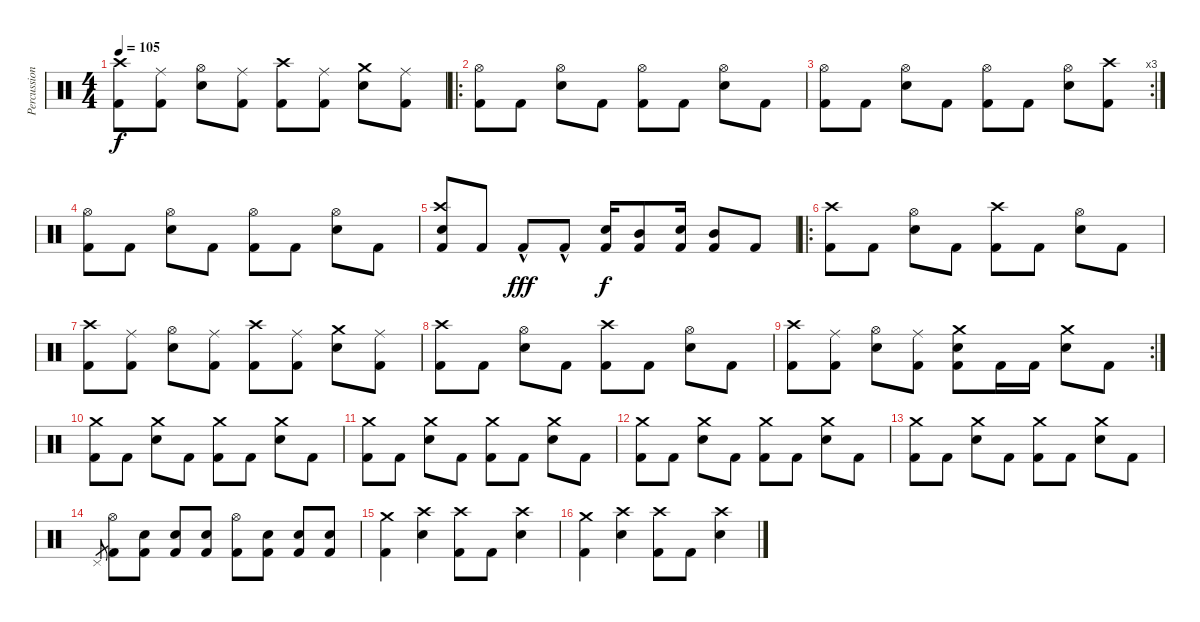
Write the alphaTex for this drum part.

\track ("Percussion" "Percussion") {instrument percussion}
\staff {score}
\articulation defaults
\ts (4 4)
\tempo 105
\clef neutral
\ks c
("Kick (hit) 2" "Crash high (hit)").8{dy f} ("Kick (hit) 2" "Ride (middle)").8 ("Electric Snare (hit)" "Hi-Hat (open)").8 ("Kick (hit) 2" "Ride (middle)").8 ("Kick (hit) 2" "Crash high (hit)").8 ("Kick (hit) 2" "Ride (middle)").8 ("Electric Snare (hit)" "Crash medium (hit)").8 ("Kick (hit) 2" "Ride (middle)").8 |
\ro
("Kick (hit) 2" "Hi-Hat (open)").8 "Kick (hit) 2".8 ("Electric Snare (hit)" "Hi-Hat (open)").8 "Kick (hit) 2".8 ("Kick (hit) 2" "Hi-Hat (open)").8 "Kick (hit) 2".8 ("Electric Snare (hit)" "Hi-Hat (open)").8 "Kick (hit) 2".8 |
\rc 3
("Kick (hit) 2" "Hi-Hat (open)").8 "Kick (hit) 2".8 ("Electric Snare (hit)" "Hi-Hat (open)").8 "Kick (hit) 2".8 ("Kick (hit) 2" "Hi-Hat (open)").8 "Kick (hit) 2".8 ("Electric Snare (hit)" "Hi-Hat (open)").8 ("Kick (hit) 2" "Crash high (hit)").8 |
("Kick (hit) 2" "Hi-Hat (open)").8 "Kick (hit) 2".8 ("Electric Snare (hit)" "Hi-Hat (open)").8 "Kick (hit) 2".8 ("Kick (hit) 2" "Hi-Hat (open)").8 "Kick (hit) 2".8 ("Electric Snare (hit)" "Hi-Hat (open)").8 "Kick (hit) 2".8 |
("Kick (hit) 2" "Electric Snare (hit)" "Crash high (hit)").8 "Kick (hit) 2".8 "Kick (hit) 2"{hac}.8{dy fff} "Kick (hit) 2"{hac}.8 ("Kick (hit) 2" "Electric Snare (hit)").16{dy f} ("Kick (hit) 2" "Mid Tom (hit)").8 ("Kick (hit) 2" "Electric Snare (hit)").16 ("Kick (hit) 2" "Mid Tom (hit)").8 "Kick (hit) 2".8 |
\ro
("Kick (hit) 2" "Crash high (hit)").8 "Kick (hit) 2".8 ("Electric Snare (hit)" "Hi-Hat (open)").8 "Kick (hit) 2".8 ("Kick (hit) 2" "Crash high (hit)").8 "Kick (hit) 2".8 ("Electric Snare (hit)" "Hi-Hat (open)").8 "Kick (hit) 2".8 |
("Kick (hit) 2" "Crash high (hit)").8 ("Kick (hit) 2" "Ride (middle)").8 ("Electric Snare (hit)" "Hi-Hat (open)").8 ("Kick (hit) 2" "Ride (middle)").8 ("Kick (hit) 2" "Crash high (hit)").8 ("Kick (hit) 2" "Ride (middle)").8 ("Electric Snare (hit)" "Crash medium (hit)").8 ("Kick (hit) 2" "Ride (middle)").8 |
("Kick (hit) 2" "Crash high (hit)").8 "Kick (hit) 2".8 ("Electric Snare (hit)" "Hi-Hat (open)").8 "Kick (hit) 2".8 ("Kick (hit) 2" "Crash high (hit)").8 "Kick (hit) 2".8 ("Electric Snare (hit)" "Hi-Hat (open)").8 "Kick (hit) 2".8 |
\rc 2
("Kick (hit) 2" "Crash high (hit)").8 ("Kick (hit) 2" "Ride (middle)").8 ("Electric Snare (hit)" "Hi-Hat (open)").8 ("Kick (hit) 2" "Ride (middle)").8 ("Kick (hit) 2" "Electric Snare (hit)" "Crash medium (hit)").8 "Kick (hit) 2".16 "Kick (hit) 2".16 ("Electric Snare (hit)" "Crash medium (hit)").8 "Kick (hit) 2".8 |
("Kick (hit) 2" "Crash medium (hit)").8 "Kick (hit) 2".8 ("Electric Snare (hit)" "Crash medium (hit)").8 "Kick (hit) 2".8 ("Kick (hit) 2" "Crash medium (hit)").8 "Kick (hit) 2".8 ("Electric Snare (hit)" "Crash medium (hit)").8 "Kick (hit) 2".8 |
("Kick (hit) 2" "Crash medium (hit)").8 "Kick (hit) 2".8 ("Electric Snare (hit)" "Crash medium (hit)").8 "Kick (hit) 2".8 ("Kick (hit) 2" "Crash medium (hit)").8 "Kick (hit) 2".8 ("Electric Snare (hit)" "Crash medium (hit)").8 "Kick (hit) 2".8 |
("Kick (hit) 2" "Crash medium (hit)").8 "Kick (hit) 2".8 ("Electric Snare (hit)" "Crash medium (hit)").8 "Kick (hit) 2".8 ("Kick (hit) 2" "Crash medium (hit)").8 "Kick (hit) 2".8 ("Electric Snare (hit)" "Crash medium (hit)").8 "Kick (hit) 2".8 |
("Kick (hit) 2" "Crash medium (hit)").8 "Kick (hit) 2".8 ("Electric Snare (hit)" "Crash medium (hit)").8 "Kick (hit) 2".8 ("Kick (hit) 2" "Crash medium (hit)").8 "Kick (hit) 2".8 ("Electric Snare (hit)" "Crash medium (hit)").8 "Kick (hit) 2".8 |
"Pedal Hi-Hat (hit)".8{gr} ("Kick (hit) 2" "Hi-Hat (open)").8 ("Kick (hit) 2" "Electric Snare (hit)").8 ("Kick (hit) 2" "Electric Snare (hit)").8 ("Kick (hit) 2" "Electric Snare (hit)").8 ("Kick (hit) 2" "Hi-Hat (open)").8 ("Kick (hit) 2" "Electric Snare (hit)").8 ("Kick (hit) 2" "Electric Snare (hit)").8 ("Kick (hit) 2" "Electric Snare (hit)").8 |
("Kick (hit) 2" "Crash medium (hit)").4 ("Electric Snare (hit)" "Crash high (hit)").4 ("Kick (hit) 2" "Crash high (hit)").8 "Kick (hit) 2".8 ("Electric Snare (hit)" "Crash high (hit)").4 |
("Kick (hit) 2" "Crash medium (hit)").4 ("Electric Snare (hit)" "Crash high (hit)").4 ("Kick (hit) 2" "Crash high (hit)").8 "Kick (hit) 2".8 ("Electric Snare (hit)" "Crash high (hit)").4
